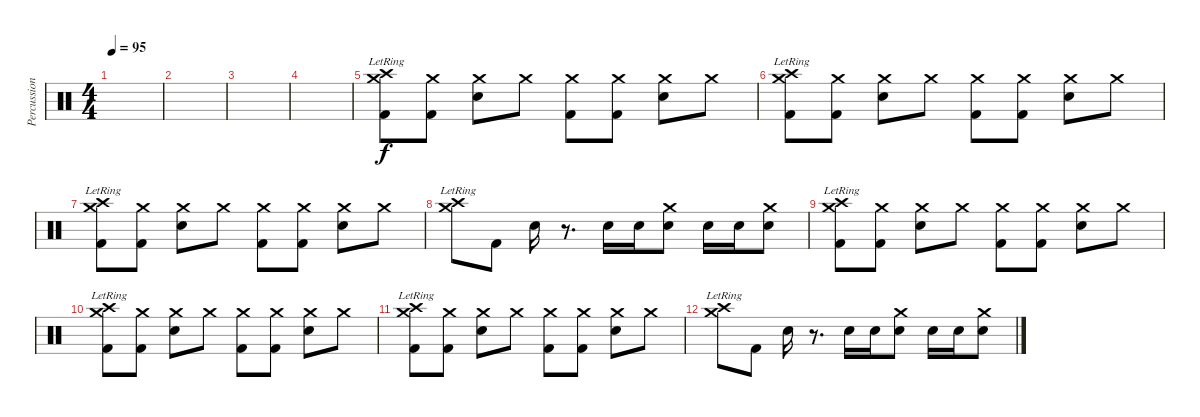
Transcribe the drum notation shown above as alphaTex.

\track ("Percussion" "Percussion") {instrument percussion}
\staff {score}
\articulation defaults
\ts (4 4)
\tempo 95
\clef neutral
\ks c
|
|
|
|
("Crash high (hit)"{lr} "Crash medium (hit)" "Kick (hit) 2").8 ("Crash medium (hit)" "Kick (hit) 2").8 ("Crash medium (hit)" "Electric Snare (hit)").8 "Crash medium (hit)".8 ("Crash medium (hit)" "Kick (hit) 2").8 ("Crash medium (hit)" "Kick (hit) 2").8 ("Crash medium (hit)" "Electric Snare (hit)").8 "Crash medium (hit)".8 |
("Crash high (hit)"{lr} "Crash medium (hit)" "Kick (hit) 2").8 ("Crash medium (hit)" "Kick (hit) 2").8 ("Crash medium (hit)" "Electric Snare (hit)").8 "Crash medium (hit)".8 ("Crash medium (hit)" "Kick (hit) 2").8 ("Crash medium (hit)" "Kick (hit) 2").8 ("Crash medium (hit)" "Electric Snare (hit)").8 "Crash medium (hit)".8 |
("Crash high (hit)"{lr} "Crash medium (hit)" "Kick (hit) 2").8 ("Crash medium (hit)" "Kick (hit) 2").8 ("Crash medium (hit)" "Electric Snare (hit)").8 "Crash medium (hit)".8 ("Crash medium (hit)" "Kick (hit) 2").8 ("Crash medium (hit)" "Kick (hit) 2").8 ("Crash medium (hit)" "Electric Snare (hit)").8 "Crash medium (hit)".8 |
("Crash high (hit)"{lr} "Crash medium (hit)"{lr}).8 "Kick (hit) 2".8 "Electric Snare (hit)".16 r.8{d} "Electric Snare (hit)".16 "Electric Snare (hit)".16 ("Crash medium (hit)" "Electric Snare (hit)").8 "Electric Snare (hit)".16 "Electric Snare (hit)".16 ("Crash medium (hit)" "Electric Snare (hit)").8 |
("Crash high (hit)"{lr} "Crash medium (hit)" "Kick (hit) 2").8 ("Crash medium (hit)" "Kick (hit) 2").8 ("Crash medium (hit)" "Electric Snare (hit)").8 "Crash medium (hit)".8 ("Crash medium (hit)" "Kick (hit) 2").8 ("Crash medium (hit)" "Kick (hit) 2").8 ("Crash medium (hit)" "Electric Snare (hit)").8 "Crash medium (hit)".8 |
("Crash high (hit)"{lr} "Crash medium (hit)" "Kick (hit) 2").8 ("Crash medium (hit)" "Kick (hit) 2").8 ("Crash medium (hit)" "Electric Snare (hit)").8 "Crash medium (hit)".8 ("Crash medium (hit)" "Kick (hit) 2").8 ("Crash medium (hit)" "Kick (hit) 2").8 ("Crash medium (hit)" "Electric Snare (hit)").8 "Crash medium (hit)".8 |
("Crash high (hit)"{lr} "Crash medium (hit)" "Kick (hit) 2").8 ("Crash medium (hit)" "Kick (hit) 2").8 ("Crash medium (hit)" "Electric Snare (hit)").8 "Crash medium (hit)".8 ("Crash medium (hit)" "Kick (hit) 2").8 ("Crash medium (hit)" "Kick (hit) 2").8 ("Crash medium (hit)" "Electric Snare (hit)").8 "Crash medium (hit)".8 |
("Crash high (hit)"{lr} "Crash medium (hit)"{lr}).8 "Kick (hit) 2".8 "Electric Snare (hit)".16 r.8{d} "Electric Snare (hit)".16 "Electric Snare (hit)".16 ("Crash medium (hit)" "Electric Snare (hit)").8 "Electric Snare (hit)".16 "Electric Snare (hit)".16 ("Crash medium (hit)" "Electric Snare (hit)").8
